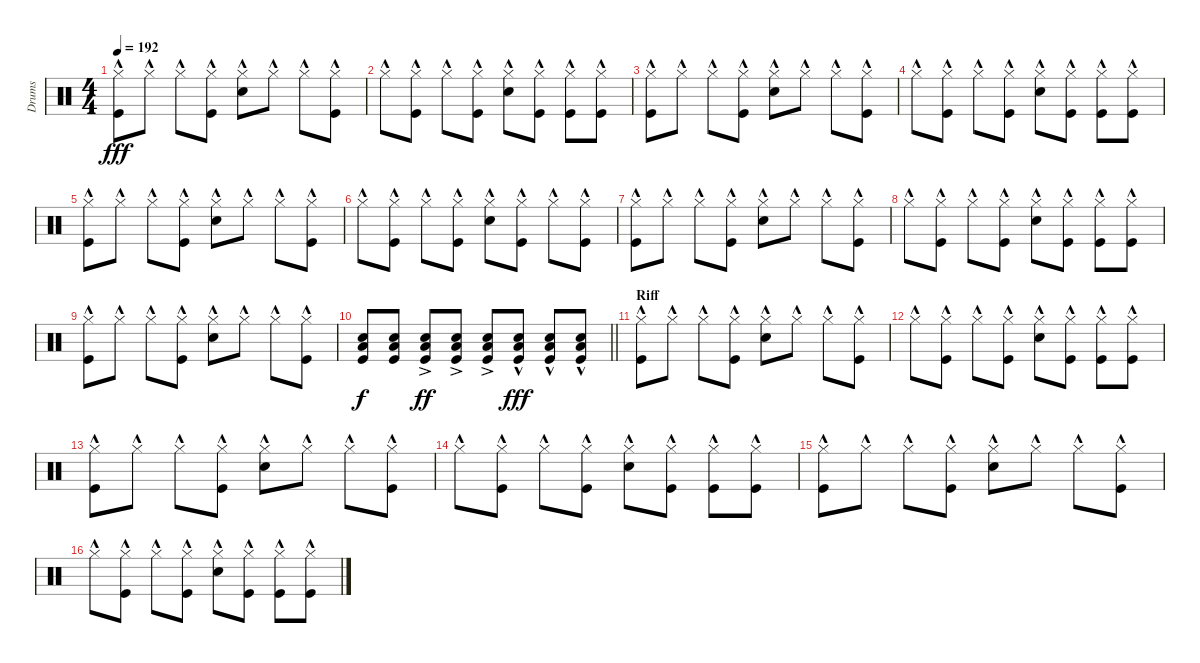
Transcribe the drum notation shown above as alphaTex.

\track ("Drums" "Drums") {instrument percussion}
\staff {score}
\articulation defaults
\ts (4 4)
\tempo 192
\clef neutral
\ks c
("Kick (hit)"{hac} "Hi-Hat (closed)"{hac}).8{dy fff} "Hi-Hat (closed)"{hac}.8 "Hi-Hat (closed)"{hac}.8 ("Kick (hit)"{hac} "Hi-Hat (closed)"{hac}).8 ("Snare (hit) 2"{hac} "Hi-Hat (closed)"{hac}).8 "Hi-Hat (closed)"{hac}.8 "Hi-Hat (closed)"{hac}.8 ("Kick (hit)"{hac} "Hi-Hat (closed)"{hac}).8 |
"Hi-Hat (closed)"{hac}.8 ("Kick (hit)"{hac} "Hi-Hat (closed)"{hac}).8 "Hi-Hat (closed)"{hac}.8 ("Kick (hit)"{hac} "Hi-Hat (closed)"{hac}).8 ("Snare (hit) 2"{hac} "Hi-Hat (closed)"{hac}).8 ("Kick (hit)"{hac} "Hi-Hat (closed)"{hac}).8 ("Kick (hit)" "Hi-Hat (closed)"{hac}).8 ("Kick (hit)" "Hi-Hat (closed)"{hac}).8 |
("Kick (hit)"{hac} "Hi-Hat (closed)"{hac}).8 "Hi-Hat (closed)"{hac}.8 "Hi-Hat (closed)"{hac}.8 ("Kick (hit)"{hac} "Hi-Hat (closed)"{hac}).8 ("Snare (hit) 2"{hac} "Hi-Hat (closed)"{hac}).8 "Hi-Hat (closed)"{hac}.8 "Hi-Hat (closed)"{hac}.8 ("Kick (hit)"{hac} "Hi-Hat (closed)"{hac}).8 |
"Hi-Hat (closed)"{hac}.8 ("Kick (hit)"{hac} "Hi-Hat (closed)"{hac}).8 "Hi-Hat (closed)"{hac}.8 ("Kick (hit)"{hac} "Hi-Hat (closed)"{hac}).8 ("Snare (hit) 2"{hac} "Hi-Hat (closed)"{hac}).8 ("Kick (hit)"{hac} "Hi-Hat (closed)"{hac}).8 ("Kick (hit)" "Hi-Hat (closed)"{hac}).8 ("Kick (hit)" "Hi-Hat (closed)"{hac}).8 |
("Kick (hit)"{hac} "Hi-Hat (closed)"{hac}).8 "Hi-Hat (closed)"{hac}.8 "Hi-Hat (closed)"{hac}.8 ("Kick (hit)"{hac} "Hi-Hat (closed)"{hac}).8 ("Snare (hit) 2"{hac} "Hi-Hat (closed)"{hac}).8 "Hi-Hat (closed)"{hac}.8 "Hi-Hat (closed)"{hac}.8 ("Kick (hit)"{hac} "Hi-Hat (closed)"{hac}).8 |
"Hi-Hat (closed)"{hac}.8 ("Kick (hit)"{hac} "Hi-Hat (closed)"{hac}).8 "Hi-Hat (closed)"{hac}.8 ("Kick (hit)"{hac} "Hi-Hat (closed)"{hac}).8 ("Snare (hit) 2"{hac} "Hi-Hat (closed)"{hac}).8 ("Kick (hit)"{hac} "Hi-Hat (closed)"{hac}).8 "Hi-Hat (closed)"{hac}.8 ("Kick (hit)" "Hi-Hat (closed)"{hac}).8 |
("Kick (hit)"{hac} "Hi-Hat (closed)"{hac}).8 "Hi-Hat (closed)"{hac}.8 "Hi-Hat (closed)"{hac}.8 ("Kick (hit)"{hac} "Hi-Hat (closed)"{hac}).8 ("Snare (hit) 2"{hac} "Hi-Hat (closed)"{hac}).8 "Hi-Hat (closed)"{hac}.8 "Hi-Hat (closed)"{hac}.8 ("Kick (hit)"{hac} "Hi-Hat (closed)"{hac}).8 |
"Hi-Hat (closed)"{hac}.8 ("Kick (hit)"{hac} "Hi-Hat (closed)"{hac}).8 "Hi-Hat (closed)"{hac}.8 ("Kick (hit)"{hac} "Hi-Hat (closed)"{hac}).8 ("Snare (hit) 2"{hac} "Hi-Hat (closed)"{hac}).8 ("Kick (hit)"{hac} "Hi-Hat (closed)"{hac}).8 ("Kick (hit)" "Hi-Hat (closed)"{hac}).8 ("Kick (hit)" "Hi-Hat (closed)"{hac}).8 |
("Kick (hit)"{hac} "Hi-Hat (closed)"{hac}).8 "Hi-Hat (closed)"{hac}.8 "Hi-Hat (closed)"{hac}.8 ("Kick (hit)"{hac} "Hi-Hat (closed)"{hac}).8 ("Snare (hit) 2"{hac} "Hi-Hat (closed)"{hac}).8 "Hi-Hat (closed)"{hac}.8 "Hi-Hat (closed)"{hac}.8 ("Kick (hit)"{hac} "Hi-Hat (closed)"{hac}).8 |
\barLineRight lightlight
("Snare (hit) 2" "Low Floor Tom (hit)" "Kick (hit)").8{dy f} ("Snare (hit) 2" "Low Floor Tom (hit)" "Kick (hit)").8 ("Snare (hit) 2"{ac} "Low Floor Tom (hit)"{ac} "Kick (hit)"{ac}).8{dy ff} ("Snare (hit) 2"{ac} "Low Floor Tom (hit)"{ac} "Kick (hit)"{ac}).8 ("Snare (hit) 2"{ac} "Low Floor Tom (hit)"{ac} "Kick (hit)"{ac}).8 ("Snare (hit) 2"{hac} "Low Floor Tom (hit)"{hac} "Kick (hit)"{hac}).8{dy fff} ("Snare (hit) 2"{hac} "Low Floor Tom (hit)"{hac} "Kick (hit)"{hac}).8 ("Snare (hit) 2"{hac} "Low Floor Tom (hit)"{hac} "Kick (hit)"{hac}).8 |
\section ("" "Riff")
("Kick (hit)"{hac} "Hi-Hat (closed)"{hac}).8 "Hi-Hat (closed)"{hac}.8 "Hi-Hat (closed)"{hac}.8 ("Kick (hit)"{hac} "Hi-Hat (closed)"{hac}).8 ("Snare (hit) 2"{hac} "Hi-Hat (closed)"{hac}).8 "Hi-Hat (closed)"{hac}.8 "Hi-Hat (closed)"{hac}.8 ("Kick (hit)"{hac} "Hi-Hat (closed)"{hac}).8 |
"Hi-Hat (closed)"{hac}.8 ("Kick (hit)"{hac} "Hi-Hat (closed)"{hac}).8 "Hi-Hat (closed)"{hac}.8 ("Kick (hit)"{hac} "Hi-Hat (closed)"{hac}).8 ("Snare (hit) 2"{hac} "Hi-Hat (closed)"{hac}).8 ("Kick (hit)"{hac} "Hi-Hat (closed)"{hac}).8 ("Kick (hit)" "Hi-Hat (closed)"{hac}).8 ("Kick (hit)" "Hi-Hat (closed)"{hac}).8 |
("Kick (hit)"{hac} "Hi-Hat (closed)"{hac}).8 "Hi-Hat (closed)"{hac}.8 "Hi-Hat (closed)"{hac}.8 ("Kick (hit)"{hac} "Hi-Hat (closed)"{hac}).8 ("Snare (hit) 2"{hac} "Hi-Hat (closed)"{hac}).8 "Hi-Hat (closed)"{hac}.8 "Hi-Hat (closed)"{hac}.8 ("Kick (hit)"{hac} "Hi-Hat (closed)"{hac}).8 |
"Hi-Hat (closed)"{hac}.8 ("Kick (hit)"{hac} "Hi-Hat (closed)"{hac}).8 "Hi-Hat (closed)"{hac}.8 ("Kick (hit)"{hac} "Hi-Hat (closed)"{hac}).8 ("Snare (hit) 2"{hac} "Hi-Hat (closed)"{hac}).8 ("Kick (hit)"{hac} "Hi-Hat (closed)"{hac}).8 ("Kick (hit)" "Hi-Hat (closed)"{hac}).8 ("Kick (hit)" "Hi-Hat (closed)"{hac}).8 |
("Kick (hit)"{hac} "Hi-Hat (closed)"{hac}).8 "Hi-Hat (closed)"{hac}.8 "Hi-Hat (closed)"{hac}.8 ("Kick (hit)"{hac} "Hi-Hat (closed)"{hac}).8 ("Snare (hit) 2"{hac} "Hi-Hat (closed)"{hac}).8 "Hi-Hat (closed)"{hac}.8 "Hi-Hat (closed)"{hac}.8 ("Kick (hit)"{hac} "Hi-Hat (closed)"{hac}).8 |
"Hi-Hat (closed)"{hac}.8 ("Kick (hit)"{hac} "Hi-Hat (closed)"{hac}).8 "Hi-Hat (closed)"{hac}.8 ("Kick (hit)"{hac} "Hi-Hat (closed)"{hac}).8 ("Snare (hit) 2"{hac} "Hi-Hat (closed)"{hac}).8 ("Kick (hit)"{hac} "Hi-Hat (closed)"{hac}).8 ("Kick (hit)" "Hi-Hat (closed)"{hac}).8 ("Kick (hit)" "Hi-Hat (closed)"{hac}).8
